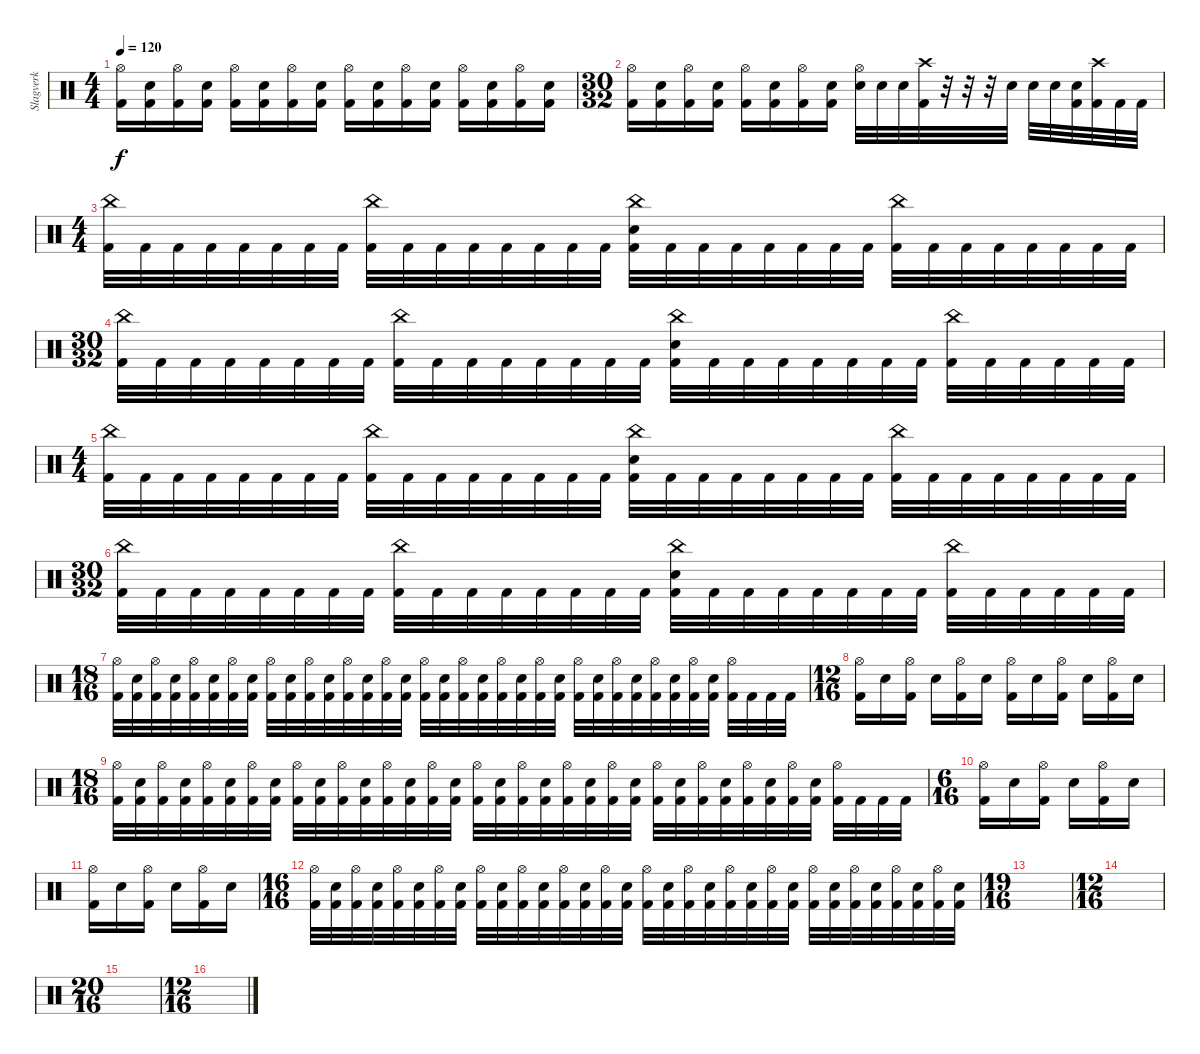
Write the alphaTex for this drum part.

\track ("Slagverk" "Slagverk") {instrument percussion}
\staff {score}
\articulation defaults
\ts (4 4)
\tempo 120
\clef neutral
\ks c
("Hi-Hat (open)" "Kick (hit) 2").16{dy f} ("Electric Snare (hit)" "Kick (hit) 2").16 ("Hi-Hat (open)" "Kick (hit) 2").16 ("Electric Snare (hit)" "Kick (hit) 2").16 ("Hi-Hat (open)" "Kick (hit) 2").16 ("Electric Snare (hit)" "Kick (hit) 2").16 ("Hi-Hat (open)" "Kick (hit) 2").16 ("Electric Snare (hit)" "Kick (hit) 2").16 ("Hi-Hat (open)" "Kick (hit) 2").16 ("Electric Snare (hit)" "Kick (hit) 2").16 ("Hi-Hat (open)" "Kick (hit) 2").16 ("Electric Snare (hit)" "Kick (hit) 2").16 ("Hi-Hat (open)" "Kick (hit) 2").16 ("Electric Snare (hit)" "Kick (hit) 2").16 ("Hi-Hat (open)" "Kick (hit) 2").16 ("Electric Snare (hit)" "Kick (hit) 2").16 |
\ts (30 32)
("Hi-Hat (open)" "Kick (hit) 2").16 ("Electric Snare (hit)" "Kick (hit) 2").16 ("Hi-Hat (open)" "Kick (hit) 2").16 ("Electric Snare (hit)" "Kick (hit) 2").16 ("Hi-Hat (open)" "Kick (hit) 2").16 ("Electric Snare (hit)" "Kick (hit) 2").16 ("Hi-Hat (open)" "Kick (hit) 2").16 ("Electric Snare (hit)" "Kick (hit) 2").16 ("Hi-Hat (open)" "Electric Snare (hit)").32 "Electric Snare (hit)".32 "Electric Snare (hit)".32 ("Crash high (hit)" "Kick (hit) 2").32 r.32 r.32 r.32 "Electric Snare (hit)".32 "Electric Snare (hit)".32 "Electric Snare (hit)".32 ("Electric Snare (hit)" "Kick (hit) 2").32 ("Crash high (hit)" "Kick (hit) 2").32 "Kick (hit) 2".32 "Kick (hit) 2".32 |
\ts (4 4)
("China (hit)" "Kick (hit) 2").32 "Kick (hit) 2".32 "Kick (hit) 2".32 "Kick (hit) 2".32 "Kick (hit) 2".32 "Kick (hit) 2".32 "Kick (hit) 2".32 "Kick (hit) 2".32 ("China (hit)" "Kick (hit) 2").32 "Kick (hit) 2".32 "Kick (hit) 2".32 "Kick (hit) 2".32 "Kick (hit) 2".32 "Kick (hit) 2".32 "Kick (hit) 2".32 "Kick (hit) 2".32 ("China (hit)" "Electric Snare (hit)" "Kick (hit) 2").32 "Kick (hit) 2".32 "Kick (hit) 2".32 "Kick (hit) 2".32 "Kick (hit) 2".32 "Kick (hit) 2".32 "Kick (hit) 2".32 "Kick (hit) 2".32 ("China (hit)" "Kick (hit) 2").32 "Kick (hit) 2".32 "Kick (hit) 2".32 "Kick (hit) 2".32 "Kick (hit) 2".32 "Kick (hit) 2".32 "Kick (hit) 2".32 "Kick (hit) 2".32 |
\ts (30 32)
("China (hit)" "Kick (hit) 2").32 "Kick (hit) 2".32 "Kick (hit) 2".32 "Kick (hit) 2".32 "Kick (hit) 2".32 "Kick (hit) 2".32 "Kick (hit) 2".32 "Kick (hit) 2".32 ("China (hit)" "Kick (hit) 2").32 "Kick (hit) 2".32 "Kick (hit) 2".32 "Kick (hit) 2".32 "Kick (hit) 2".32 "Kick (hit) 2".32 "Kick (hit) 2".32 "Kick (hit) 2".32 ("China (hit)" "Electric Snare (hit)" "Kick (hit) 2").32 "Kick (hit) 2".32 "Kick (hit) 2".32 "Kick (hit) 2".32 "Kick (hit) 2".32 "Kick (hit) 2".32 "Kick (hit) 2".32 "Kick (hit) 2".32 ("China (hit)" "Kick (hit) 2").32 "Kick (hit) 2".32 "Kick (hit) 2".32 "Kick (hit) 2".32 "Kick (hit) 2".32 "Kick (hit) 2".32 |
\ts (4 4)
("China (hit)" "Kick (hit) 2").32 "Kick (hit) 2".32 "Kick (hit) 2".32 "Kick (hit) 2".32 "Kick (hit) 2".32 "Kick (hit) 2".32 "Kick (hit) 2".32 "Kick (hit) 2".32 ("China (hit)" "Kick (hit) 2").32 "Kick (hit) 2".32 "Kick (hit) 2".32 "Kick (hit) 2".32 "Kick (hit) 2".32 "Kick (hit) 2".32 "Kick (hit) 2".32 "Kick (hit) 2".32 ("China (hit)" "Electric Snare (hit)" "Kick (hit) 2").32 "Kick (hit) 2".32 "Kick (hit) 2".32 "Kick (hit) 2".32 "Kick (hit) 2".32 "Kick (hit) 2".32 "Kick (hit) 2".32 "Kick (hit) 2".32 ("China (hit)" "Kick (hit) 2").32 "Kick (hit) 2".32 "Kick (hit) 2".32 "Kick (hit) 2".32 "Kick (hit) 2".32 "Kick (hit) 2".32 "Kick (hit) 2".32 "Kick (hit) 2".32 |
\ts (30 32)
("China (hit)" "Kick (hit) 2").32 "Kick (hit) 2".32 "Kick (hit) 2".32 "Kick (hit) 2".32 "Kick (hit) 2".32 "Kick (hit) 2".32 "Kick (hit) 2".32 "Kick (hit) 2".32 ("China (hit)" "Kick (hit) 2").32 "Kick (hit) 2".32 "Kick (hit) 2".32 "Kick (hit) 2".32 "Kick (hit) 2".32 "Kick (hit) 2".32 "Kick (hit) 2".32 "Kick (hit) 2".32 ("China (hit)" "Electric Snare (hit)" "Kick (hit) 2").32 "Kick (hit) 2".32 "Kick (hit) 2".32 "Kick (hit) 2".32 "Kick (hit) 2".32 "Kick (hit) 2".32 "Kick (hit) 2".32 "Kick (hit) 2".32 ("China (hit)" "Kick (hit) 2").32 "Kick (hit) 2".32 "Kick (hit) 2".32 "Kick (hit) 2".32 "Kick (hit) 2".32 "Kick (hit) 2".32 |
\ts (18 16)
("Hi-Hat (open)" "Kick (hit) 2").32 ("Electric Snare (hit)" "Kick (hit) 2").32 ("Hi-Hat (open)" "Kick (hit) 2").32 ("Electric Snare (hit)" "Kick (hit) 2").32 ("Hi-Hat (open)" "Kick (hit) 2").32 ("Electric Snare (hit)" "Kick (hit) 2").32 ("Hi-Hat (open)" "Kick (hit) 2").32 ("Electric Snare (hit)" "Kick (hit) 2").32 ("Hi-Hat (open)" "Kick (hit) 2").32 ("Electric Snare (hit)" "Kick (hit) 2").32 ("Hi-Hat (open)" "Kick (hit) 2").32 ("Electric Snare (hit)" "Kick (hit) 2").32 ("Hi-Hat (open)" "Kick (hit) 2").32 ("Electric Snare (hit)" "Kick (hit) 2").32 ("Hi-Hat (open)" "Kick (hit) 2").32 ("Electric Snare (hit)" "Kick (hit) 2").32 ("Hi-Hat (open)" "Kick (hit) 2").32 ("Electric Snare (hit)" "Kick (hit) 2").32 ("Hi-Hat (open)" "Kick (hit) 2").32 ("Electric Snare (hit)" "Kick (hit) 2").32 ("Hi-Hat (open)" "Kick (hit) 2").32 ("Electric Snare (hit)" "Kick (hit) 2").32 ("Hi-Hat (open)" "Kick (hit) 2").32 ("Electric Snare (hit)" "Kick (hit) 2").32 ("Hi-Hat (open)" "Kick (hit) 2").32 ("Electric Snare (hit)" "Kick (hit) 2").32 ("Hi-Hat (open)" "Kick (hit) 2").32 ("Electric Snare (hit)" "Kick (hit) 2").32 ("Hi-Hat (open)" "Kick (hit) 2").32 ("Electric Snare (hit)" "Kick (hit) 2").32 ("Hi-Hat (open)" "Kick (hit) 2").32 ("Electric Snare (hit)" "Kick (hit) 2").32 ("Hi-Hat (open)" "Kick (hit) 2").32 "Kick (hit) 2".32 "Kick (hit) 2".32 "Kick (hit) 2".32 |
\ts (12 16)
("Hi-Hat (open)" "Kick (hit) 2").16 "Electric Snare (hit)".16 ("Hi-Hat (open)" "Kick (hit) 2").16 "Electric Snare (hit)".16 ("Hi-Hat (open)" "Kick (hit) 2").16 "Electric Snare (hit)".16 ("Hi-Hat (open)" "Kick (hit) 2").16 "Electric Snare (hit)".16 ("Hi-Hat (open)" "Kick (hit) 2").16 "Electric Snare (hit)".16 ("Hi-Hat (open)" "Kick (hit) 2").16 "Electric Snare (hit)".16 |
\ts (18 16)
("Hi-Hat (open)" "Kick (hit) 2").32 ("Electric Snare (hit)" "Kick (hit) 2").32 ("Hi-Hat (open)" "Kick (hit) 2").32 ("Electric Snare (hit)" "Kick (hit) 2").32 ("Hi-Hat (open)" "Kick (hit) 2").32 ("Electric Snare (hit)" "Kick (hit) 2").32 ("Hi-Hat (open)" "Kick (hit) 2").32 ("Electric Snare (hit)" "Kick (hit) 2").32 ("Hi-Hat (open)" "Kick (hit) 2").32 ("Electric Snare (hit)" "Kick (hit) 2").32 ("Hi-Hat (open)" "Kick (hit) 2").32 ("Electric Snare (hit)" "Kick (hit) 2").32 ("Hi-Hat (open)" "Kick (hit) 2").32 ("Electric Snare (hit)" "Kick (hit) 2").32 ("Hi-Hat (open)" "Kick (hit) 2").32 ("Electric Snare (hit)" "Kick (hit) 2").32 ("Hi-Hat (open)" "Kick (hit) 2").32 ("Electric Snare (hit)" "Kick (hit) 2").32 ("Hi-Hat (open)" "Kick (hit) 2").32 ("Electric Snare (hit)" "Kick (hit) 2").32 ("Hi-Hat (open)" "Kick (hit) 2").32 ("Electric Snare (hit)" "Kick (hit) 2").32 ("Hi-Hat (open)" "Kick (hit) 2").32 ("Electric Snare (hit)" "Kick (hit) 2").32 ("Hi-Hat (open)" "Kick (hit) 2").32 ("Electric Snare (hit)" "Kick (hit) 2").32 ("Hi-Hat (open)" "Kick (hit) 2").32 ("Electric Snare (hit)" "Kick (hit) 2").32 ("Hi-Hat (open)" "Kick (hit) 2").32 ("Electric Snare (hit)" "Kick (hit) 2").32 ("Hi-Hat (open)" "Kick (hit) 2").32 ("Electric Snare (hit)" "Kick (hit) 2").32 ("Hi-Hat (open)" "Kick (hit) 2").32 "Kick (hit) 2".32 "Kick (hit) 2".32 "Kick (hit) 2".32 |
\ts (6 16)
("Hi-Hat (open)" "Kick (hit) 2").16 "Electric Snare (hit)".16 ("Hi-Hat (open)" "Kick (hit) 2").16 "Electric Snare (hit)".16 ("Hi-Hat (open)" "Kick (hit) 2").16 "Electric Snare (hit)".16 |
("Hi-Hat (open)" "Kick (hit) 2").16 "Electric Snare (hit)".16 ("Hi-Hat (open)" "Kick (hit) 2").16 "Electric Snare (hit)".16 ("Hi-Hat (open)" "Kick (hit) 2").16 "Electric Snare (hit)".16 |
\ts (16 16)
("Hi-Hat (open)" "Kick (hit) 2").32 ("Electric Snare (hit)" "Kick (hit) 2").32 ("Hi-Hat (open)" "Kick (hit) 2").32 ("Electric Snare (hit)" "Kick (hit) 2").32 ("Hi-Hat (open)" "Kick (hit) 2").32 ("Electric Snare (hit)" "Kick (hit) 2").32 ("Hi-Hat (open)" "Kick (hit) 2").32 ("Electric Snare (hit)" "Kick (hit) 2").32 ("Hi-Hat (open)" "Kick (hit) 2").32 ("Electric Snare (hit)" "Kick (hit) 2").32 ("Hi-Hat (open)" "Kick (hit) 2").32 ("Electric Snare (hit)" "Kick (hit) 2").32 ("Hi-Hat (open)" "Kick (hit) 2").32 ("Electric Snare (hit)" "Kick (hit) 2").32 ("Hi-Hat (open)" "Kick (hit) 2").32 ("Electric Snare (hit)" "Kick (hit) 2").32 ("Hi-Hat (open)" "Kick (hit) 2").32 ("Electric Snare (hit)" "Kick (hit) 2").32 ("Hi-Hat (open)" "Kick (hit) 2").32 ("Electric Snare (hit)" "Kick (hit) 2").32 ("Hi-Hat (open)" "Kick (hit) 2").32 ("Electric Snare (hit)" "Kick (hit) 2").32 ("Hi-Hat (open)" "Kick (hit) 2").32 ("Electric Snare (hit)" "Kick (hit) 2").32 ("Hi-Hat (open)" "Kick (hit) 2").32 ("Electric Snare (hit)" "Kick (hit) 2").32 ("Hi-Hat (open)" "Kick (hit) 2").32 ("Electric Snare (hit)" "Kick (hit) 2").32 ("Hi-Hat (open)" "Kick (hit) 2").32 ("Electric Snare (hit)" "Kick (hit) 2").32 ("Hi-Hat (open)" "Kick (hit) 2").32 ("Electric Snare (hit)" "Kick (hit) 2").32 |
\ts (19 16)
|
\ts (12 16)
|
\ts (20 16)
|
\ts (12 16)
